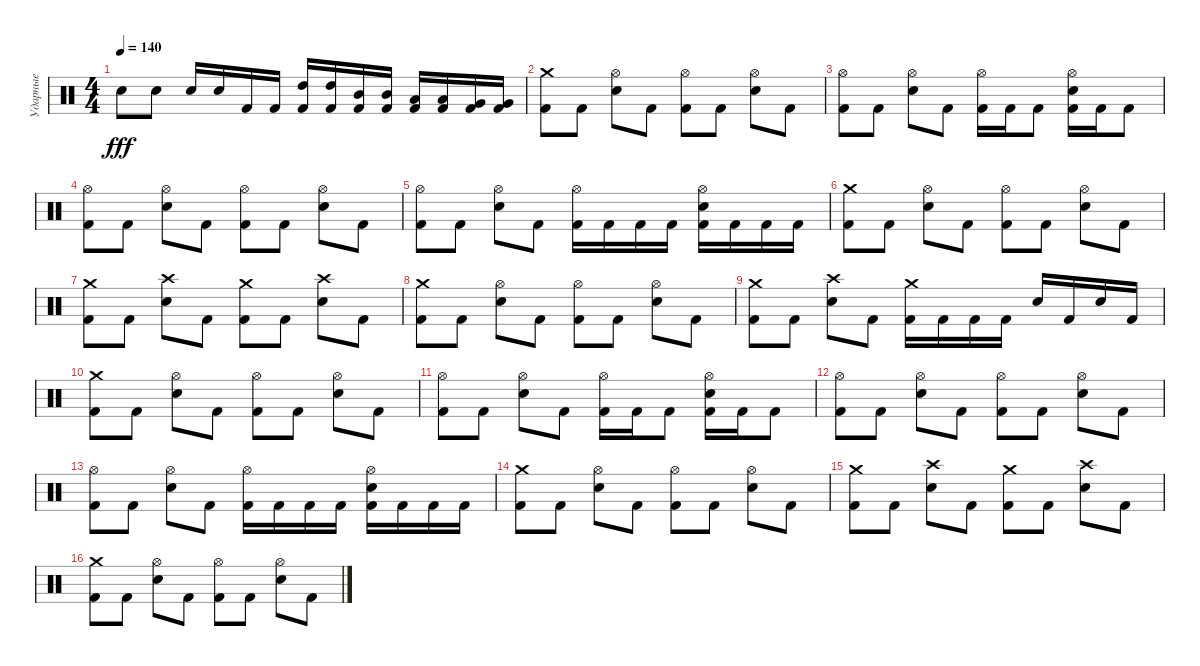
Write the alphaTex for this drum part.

\track ("Ударные" "Ударные") {instrument percussion}
\staff {score}
\articulation defaults
\ts (4 4)
\tempo 140
\clef neutral
\ks c "Electric Snare (hit)".8{dy fff} "Electric Snare (hit)".8 "Electric Snare (hit)".16 "Electric Snare (hit)".16 "Kick (hit) 2".16 "Kick (hit) 2".16
("High Tom (hit)" "Kick (hit) 2").16 ("High Tom (hit)" "Kick (hit) 2").16 ("Mid Tom (hit)" "Kick (hit) 2").16 ("Mid Tom (hit)" "Kick (hit) 2").16 ("Low Tom (hit)" "Kick (hit) 2").16 ("Low Tom (hit)" "Kick (hit) 2").16 ("Very Low Tom (hit)" "Kick (hit) 2").16 ("Very Low Tom (hit)" "Kick (hit) 2").16 |
("Crash medium (hit)" "Kick (hit) 2").8 "Kick (hit) 2".8 ("Hi-Hat (open)" "Electric Snare (hit)").8 "Kick (hit) 2".8 ("Hi-Hat (open)" "Kick (hit) 2").8 "Kick (hit) 2".8 ("Hi-Hat (open)" "Electric Snare (hit)").8 "Kick (hit) 2".8 |
("Hi-Hat (open)" "Kick (hit) 2").8 "Kick (hit) 2".8 ("Hi-Hat (open)" "Electric Snare (hit)").8 "Kick (hit) 2".8 ("Hi-Hat (open)" "Kick (hit) 2").16 "Kick (hit) 2".16 "Kick (hit) 2".8 ("Hi-Hat (open)" "Electric Snare (hit)" "Kick (hit) 2").16 "Kick (hit) 2".16 "Kick (hit) 2".8 |
("Hi-Hat (open)" "Kick (hit) 2").8 "Kick (hit) 2".8 ("Hi-Hat (open)" "Electric Snare (hit)").8 "Kick (hit) 2".8 ("Hi-Hat (open)" "Kick (hit) 2").8 "Kick (hit) 2".8 ("Hi-Hat (open)" "Electric Snare (hit)").8 "Kick (hit) 2".8 |
("Hi-Hat (open)" "Kick (hit) 2").8 "Kick (hit) 2".8 ("Hi-Hat (open)" "Electric Snare (hit)").8 "Kick (hit) 2".8 ("Hi-Hat (open)" "Kick (hit) 2").16 "Kick (hit) 2".16 "Kick (hit) 2".16 "Kick (hit) 2".16 ("Hi-Hat (open)" "Electric Snare (hit)" "Kick (hit) 2").16 "Kick (hit) 2".16 "Kick (hit) 2".16 "Kick (hit) 2".16 |
("Crash medium (hit)" "Kick (hit) 2").8 "Kick (hit) 2".8 ("Hi-Hat (open)" "Electric Snare (hit)").8 "Kick (hit) 2".8 ("Hi-Hat (open)" "Kick (hit) 2").8 "Kick (hit) 2".8 ("Hi-Hat (open)" "Electric Snare (hit)").8 "Kick (hit) 2".8 |
("Crash medium (hit)" "Kick (hit) 2").8 "Kick (hit) 2".8 ("Crash high (hit)" "Electric Snare (hit)").8 "Kick (hit) 2".8 ("Crash medium (hit)" "Kick (hit) 2").8 "Kick (hit) 2".8 ("Crash high (hit)" "Electric Snare (hit)").8 "Kick (hit) 2".8 |
("Crash medium (hit)" "Kick (hit) 2").8 "Kick (hit) 2".8 ("Hi-Hat (open)" "Electric Snare (hit)").8 "Kick (hit) 2".8 ("Hi-Hat (open)" "Kick (hit) 2").8 "Kick (hit) 2".8 ("Hi-Hat (open)" "Electric Snare (hit)").8 "Kick (hit) 2".8 |
("Crash medium (hit)" "Kick (hit) 2").8 "Kick (hit) 2".8 ("Crash high (hit)" "Electric Snare (hit)").8 "Kick (hit) 2".8 ("Crash medium (hit)" "Kick (hit) 2").16 "Kick (hit) 2".16 "Kick (hit) 2".16 "Kick (hit) 2".16 "Electric Snare (hit)".16 "Kick (hit) 2".16 "Electric Snare (hit)".16 "Kick (hit) 2".16 |
("Crash medium (hit)" "Kick (hit) 2").8 "Kick (hit) 2".8 ("Hi-Hat (open)" "Electric Snare (hit)").8 "Kick (hit) 2".8 ("Hi-Hat (open)" "Kick (hit) 2").8 "Kick (hit) 2".8 ("Hi-Hat (open)" "Electric Snare (hit)").8 "Kick (hit) 2".8 |
("Hi-Hat (open)" "Kick (hit) 2").8 "Kick (hit) 2".8 ("Hi-Hat (open)" "Electric Snare (hit)").8 "Kick (hit) 2".8 ("Hi-Hat (open)" "Kick (hit) 2").16 "Kick (hit) 2".16 "Kick (hit) 2".8 ("Hi-Hat (open)" "Electric Snare (hit)" "Kick (hit) 2").16 "Kick (hit) 2".16 "Kick (hit) 2".8 |
("Hi-Hat (open)" "Kick (hit) 2").8 "Kick (hit) 2".8 ("Hi-Hat (open)" "Electric Snare (hit)").8 "Kick (hit) 2".8 ("Hi-Hat (open)" "Kick (hit) 2").8 "Kick (hit) 2".8 ("Hi-Hat (open)" "Electric Snare (hit)").8 "Kick (hit) 2".8 |
("Hi-Hat (open)" "Kick (hit) 2").8 "Kick (hit) 2".8 ("Hi-Hat (open)" "Electric Snare (hit)").8 "Kick (hit) 2".8 ("Hi-Hat (open)" "Kick (hit) 2").16 "Kick (hit) 2".16 "Kick (hit) 2".16 "Kick (hit) 2".16 ("Hi-Hat (open)" "Electric Snare (hit)" "Kick (hit) 2").16 "Kick (hit) 2".16 "Kick (hit) 2".16 "Kick (hit) 2".16 |
("Crash medium (hit)" "Kick (hit) 2").8 "Kick (hit) 2".8 ("Hi-Hat (open)" "Electric Snare (hit)").8 "Kick (hit) 2".8 ("Hi-Hat (open)" "Kick (hit) 2").8 "Kick (hit) 2".8 ("Hi-Hat (open)" "Electric Snare (hit)").8 "Kick (hit) 2".8 |
("Crash medium (hit)" "Kick (hit) 2").8 "Kick (hit) 2".8 ("Crash high (hit)" "Electric Snare (hit)").8 "Kick (hit) 2".8 ("Crash medium (hit)" "Kick (hit) 2").8 "Kick (hit) 2".8 ("Crash high (hit)" "Electric Snare (hit)").8 "Kick (hit) 2".8 |
("Crash medium (hit)" "Kick (hit) 2").8 "Kick (hit) 2".8 ("Hi-Hat (open)" "Electric Snare (hit)").8 "Kick (hit) 2".8 ("Hi-Hat (open)" "Kick (hit) 2").8 "Kick (hit) 2".8 ("Hi-Hat (open)" "Electric Snare (hit)").8 "Kick (hit) 2".8
